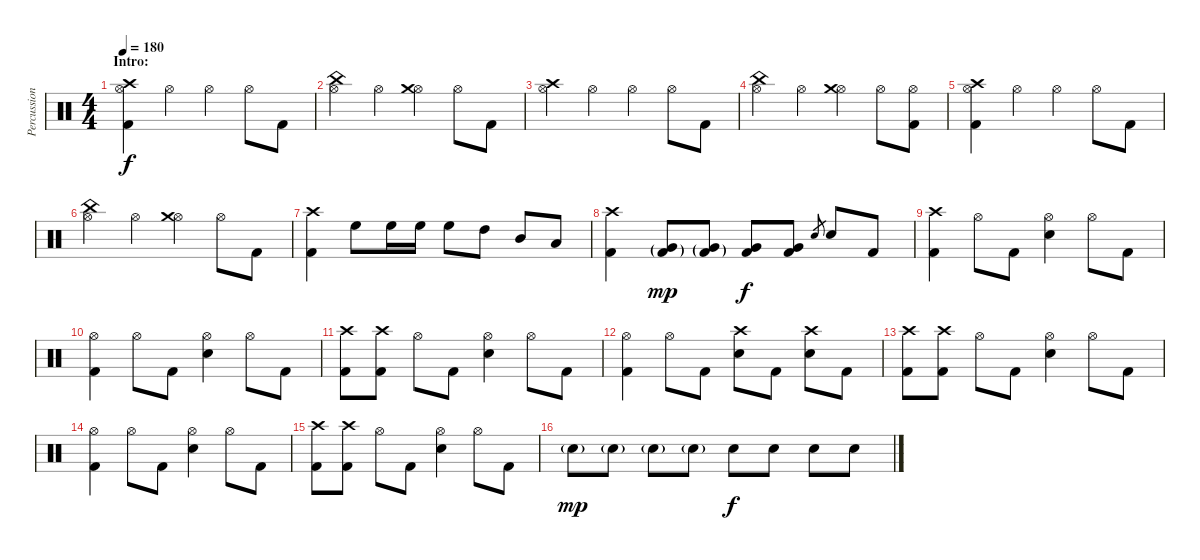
\track ("Percussion" "Percussion") {instrument percussion}
\staff {score}
\articulation defaults
\ts (4 4)
\section ("" "Intro:")
\tempo 180
\tempo 134
\tempo 180
\clef neutral
\ks c
("Hi-Hat (open)" "Crash high (hit)" "Kick (hit) 2").4{dy f} "Hi-Hat (open)".4 "Hi-Hat (open)".4 "Hi-Hat (open)".8 "Kick (hit) 2".8 |
("Hi-Hat (open)" "China (hit)").4 "Hi-Hat (open)".4 ("Hi-Hat (open)" "Crash medium (hit)").4 "Hi-Hat (open)".8 "Kick (hit) 2".8 |
("Hi-Hat (open)" "Crash high (hit)").4 "Hi-Hat (open)".4 "Hi-Hat (open)".4 "Hi-Hat (open)".8 "Kick (hit) 2".8 |
("Hi-Hat (open)" "China (hit)").4 "Hi-Hat (open)".4 ("Hi-Hat (open)" "Crash medium (hit)").4 "Hi-Hat (open)".8 ("Hi-Hat (open)" "Kick (hit) 2").8 |
("Hi-Hat (open)" "Crash high (hit)" "Kick (hit) 2").4 "Hi-Hat (open)".4 "Hi-Hat (open)".4 "Hi-Hat (open)".8 "Kick (hit) 2".8 |
("Hi-Hat (open)" "China (hit)").4 "Hi-Hat (open)".4 ("Hi-Hat (open)" "Crash medium (hit)").4 "Hi-Hat (open)".8 "Kick (hit) 2".8 |
("Crash high (hit)" "Kick (hit) 2").4 "High Floor Tom (hit)".8 "High Floor Tom (hit)".16 "High Floor Tom (hit)".16 "High Floor Tom (hit)".8 "High Tom (hit)".8 "Mid Tom (hit)".8 "Low Tom (hit)".8 |
("Crash high (hit)" "Kick (hit) 2").4 ("Very Low Tom (hit)"{g} "Kick (hit) 2"{g}).8{dy mp} ("Very Low Tom (hit)"{g} "Kick (hit) 2"{g}).8 ("Very Low Tom (hit)" "Kick (hit) 2").8{dy f} ("Very Low Tom (hit)" "Kick (hit) 2").8 "Snare (hit) 2".8{gr} "Snare (hit) 2".8 "Kick (hit) 2".8 |
("Crash high (hit)" "Kick (hit) 2").4 "Hi-Hat (open)".8 "Kick (hit) 2".8 ("Hi-Hat (open)" "Snare (hit) 2").4 "Hi-Hat (open)".8 "Kick (hit) 2".8 |
("Hi-Hat (open)" "Kick (hit) 2").4 "Hi-Hat (open)".8 "Kick (hit) 2".8 ("Hi-Hat (open)" "Snare (hit) 2").4 "Hi-Hat (open)".8 "Kick (hit) 2".8 |
("Crash high (hit)" "Kick (hit) 2").8 ("Crash high (hit)" "Kick (hit) 2").8 "Hi-Hat (open)".8 "Kick (hit) 2".8 ("Hi-Hat (open)" "Snare (hit) 2").4 "Hi-Hat (open)".8 "Kick (hit) 2".8 |
("Hi-Hat (open)" "Kick (hit) 2").4 "Hi-Hat (open)".8 "Kick (hit) 2".8 ("Crash high (hit)" "Snare (hit) 2").8 "Kick (hit) 2".8 ("Crash high (hit)" "Snare (hit) 2").8 "Kick (hit) 2".8 |
("Crash high (hit)" "Kick (hit) 2").8 ("Crash high (hit)" "Kick (hit) 2").8 "Hi-Hat (open)".8 "Kick (hit) 2".8 ("Hi-Hat (open)" "Snare (hit) 2").4 "Hi-Hat (open)".8 "Kick (hit) 2".8 |
("Hi-Hat (open)" "Kick (hit) 2").4 "Hi-Hat (open)".8 "Kick (hit) 2".8 ("Hi-Hat (open)" "Snare (hit) 2").4 "Hi-Hat (open)".8 "Kick (hit) 2".8 |
("Crash high (hit)" "Kick (hit) 2").8 ("Crash high (hit)" "Kick (hit) 2").8 "Hi-Hat (open)".8 "Kick (hit) 2".8 ("Hi-Hat (open)" "Snare (hit) 2").4 "Hi-Hat (open)".8 "Kick (hit) 2".8 |
"Snare (hit) 2"{g}.8{dy mp} "Snare (hit) 2"{g}.8 "Snare (hit) 2"{g}.8 "Snare (hit) 2"{g}.8 "Snare (hit) 2".8{dy f} "Snare (hit) 2".8 "Snare (hit) 2".8 "Snare (hit) 2".8
